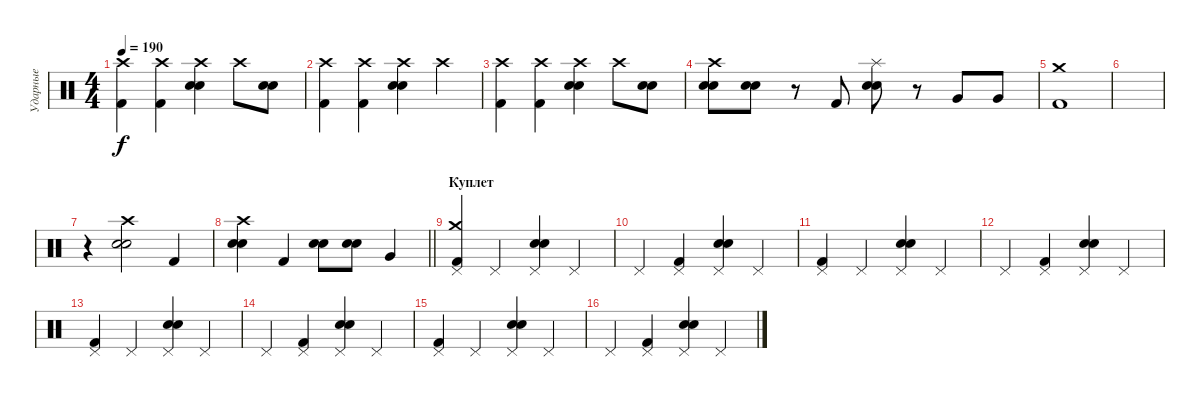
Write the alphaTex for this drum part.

\track ("Ударные" "Ударные") {instrument percussion}
\staff {score}
\articulation defaults
\ts (4 4)
\tempo 190
\clef neutral
\ks c
("Crash high (hit)" "Kick (hit) 2").4{dy f} ("Crash high (hit)" "Kick (hit) 2").4 ("Crash high (hit)" "Electric Snare (hit)" "Snare (hit) 2").4 "Crash high (hit)".8 ("Electric Snare (hit)" "Snare (hit) 2").8 |
("Crash high (hit)" "Kick (hit) 2").4 ("Crash high (hit)" "Kick (hit) 2").4 ("Crash high (hit)" "Electric Snare (hit)" "Snare (hit) 2").4 "Crash high (hit)".4 |
("Crash high (hit)" "Kick (hit) 2").4 ("Crash high (hit)" "Kick (hit) 2").4 ("Crash high (hit)" "Electric Snare (hit)" "Snare (hit) 2").4 "Crash high (hit)".8 ("Electric Snare (hit)" "Snare (hit) 2").8 |
("Crash high (hit)" "Electric Snare (hit)" "Snare (hit) 2").8 ("Electric Snare (hit)" "Snare (hit) 2").8 r.8 "Kick (hit) 2".8 ("Splash (hit)" "Electric Snare (hit)" "Snare (hit) 2").8 r.8 "Very Low Tom (hit)".8 "Very Low Tom (hit)".8 |
("Crash medium (hit)" "Kick (hit) 2").1 |
|
r.4 ("Crash high (hit)" "Electric Snare (hit)" "Snare (hit) 2").2 "Kick (hit) 2".4 |
\barLineRight lightlight
("Crash high (hit)" "Electric Snare (hit)" "Snare (hit) 2").4 "Kick (hit) 2".4 ("Electric Snare (hit)" "Snare (hit) 2").8 ("Electric Snare (hit)" "Snare (hit) 2").8 "Very Low Tom (hit)".4 |
\section ("" "Куплет")
("Crash medium (hit)" "Pedal Hi-Hat (hit)" "Kick (hit) 2").4 "Pedal Hi-Hat (hit)".4 ("Pedal Hi-Hat (hit)" "Electric Snare (hit)" "Snare (hit) 2").4 "Pedal Hi-Hat (hit)".4 |
"Pedal Hi-Hat (hit)".4 ("Pedal Hi-Hat (hit)" "Kick (hit) 2").4 ("Pedal Hi-Hat (hit)" "Electric Snare (hit)" "Snare (hit) 2").4 "Pedal Hi-Hat (hit)".4 |
("Pedal Hi-Hat (hit)" "Kick (hit) 2").4 "Pedal Hi-Hat (hit)".4 ("Pedal Hi-Hat (hit)" "Electric Snare (hit)" "Snare (hit) 2").4 "Pedal Hi-Hat (hit)".4 |
"Pedal Hi-Hat (hit)".4 ("Pedal Hi-Hat (hit)" "Kick (hit) 2").4 ("Pedal Hi-Hat (hit)" "Electric Snare (hit)" "Snare (hit) 2").4 "Pedal Hi-Hat (hit)".4 |
("Pedal Hi-Hat (hit)" "Kick (hit) 2").4 "Pedal Hi-Hat (hit)".4 ("Pedal Hi-Hat (hit)" "Electric Snare (hit)" "Snare (hit) 2").4 "Pedal Hi-Hat (hit)".4 |
"Pedal Hi-Hat (hit)".4 ("Pedal Hi-Hat (hit)" "Kick (hit) 2").4 ("Pedal Hi-Hat (hit)" "Electric Snare (hit)" "Snare (hit) 2").4 "Pedal Hi-Hat (hit)".4 |
("Pedal Hi-Hat (hit)" "Kick (hit) 2").4 "Pedal Hi-Hat (hit)".4 ("Pedal Hi-Hat (hit)" "Electric Snare (hit)" "Snare (hit) 2").4 "Pedal Hi-Hat (hit)".4 |
"Pedal Hi-Hat (hit)".4 ("Pedal Hi-Hat (hit)" "Kick (hit) 2").4 ("Pedal Hi-Hat (hit)" "Electric Snare (hit)" "Snare (hit) 2").4 "Pedal Hi-Hat (hit)".4
